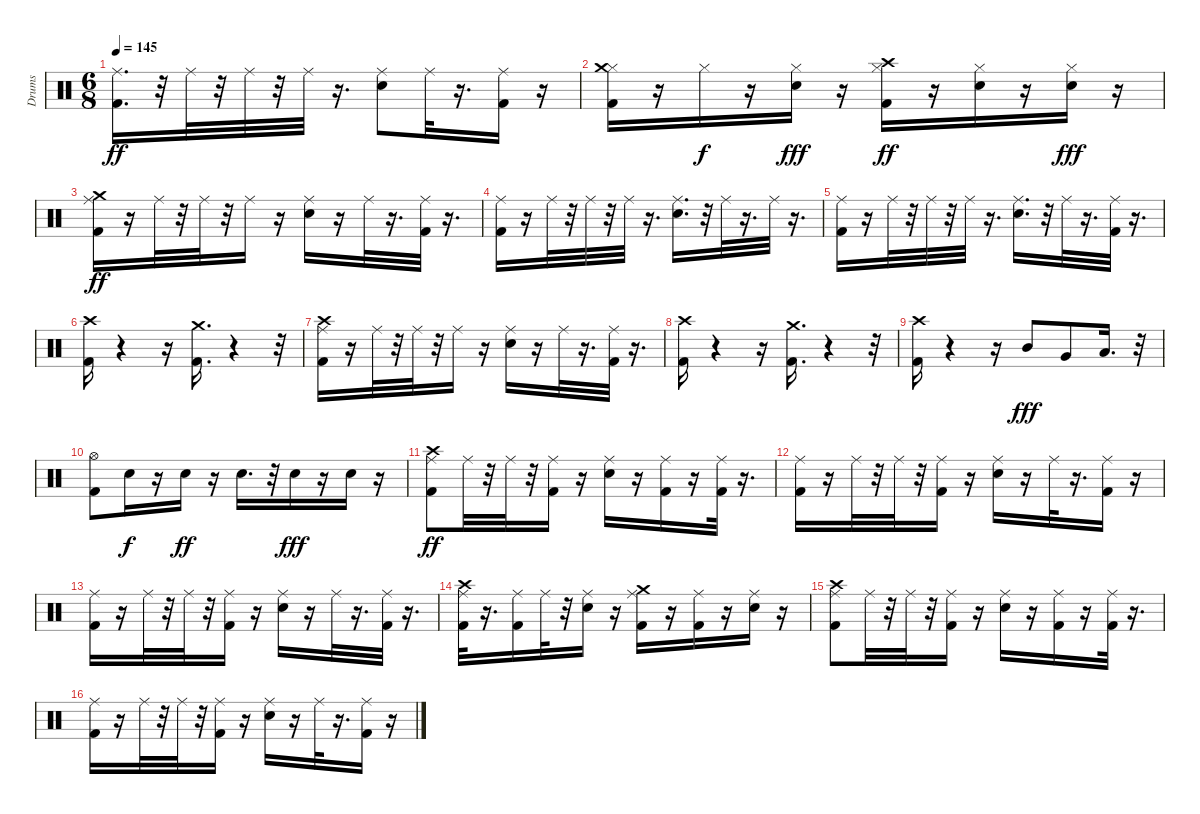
\track ("Drums" "Drums") {instrument percussion}
\staff {score}
\articulation defaults
\ts (6 8)
\tempo 145
\clef neutral
\ks c
("Kick (hit) 2" "Ride (middle)").16{d dy ff} r.32 "Ride (middle)".32 r.32 "Ride (middle)".32 r.32 "Ride (middle)".32 r.16{d} ("Snare (hit) 2" "Ride (middle)").8 "Ride (middle)".32 r.16{d} ("Kick (hit) 2" "Ride (middle)").16 r.16 |
("Kick (hit) 2" "Hi-Hat (closed)" "Crash medium (hit)").16 r.16 "Hi-Hat (closed)".16{dy f} r.16 ("Snare (hit) 2" "Hi-Hat (closed)").16{dy fff} r.16 ("Kick (hit) 2" "Hi-Hat (closed)" "Crash high (hit)").16{dy ff} r.16 ("Snare (hit) 2" "Hi-Hat (closed)").16 r.16 ("Snare (hit) 2" "Hi-Hat (closed)").16{dy fff} r.16 |
("Kick (hit) 2" "Ride (middle)" "Crash medium (hit)").16{dy ff} r.16 "Ride (middle)".32 r.32 "Ride (middle)".32 r.32 "Ride (middle)".16 r.16 ("Snare (hit) 2" "Ride (middle)").16 r.16 "Ride (middle)".32 r.16{d} ("Kick (hit) 2" "Ride (middle)").32 r.16{d} |
("Kick (hit) 2" "Ride (middle)").16 r.16 "Ride (middle)".32 r.32 "Ride (middle)".32 r.32 "Ride (middle)".32 r.16{d} ("Snare (hit) 2" "Ride (middle)").16{d} r.32 "Ride (middle)".32 r.16{d} "Ride (middle)".32 r.16{d} |
("Kick (hit) 2" "Ride (middle)").16 r.16 "Ride (middle)".32 r.32 "Ride (middle)".32 r.32 "Ride (middle)".32 r.16{d} ("Snare (hit) 2" "Ride (middle)").16{d} r.32 "Ride (middle)".32 r.16{d} ("Kick (hit) 2" "Ride (middle)").32 r.16{d} |
("Kick (hit) 2" "Crash high (hit)").16 r.4 r.16 ("Kick (hit) 2" "Crash medium (hit)").16{d} r.4 r.32 |
("Kick (hit) 2" "Ride (middle)" "Crash high (hit)").16 r.16 "Ride (middle)".32 r.32 "Ride (middle)".32 r.32 "Ride (middle)".16 r.16 ("Snare (hit) 2" "Ride (middle)").16 r.16 "Ride (middle)".32 r.16{d} ("Kick (hit) 2" "Ride (middle)").32 r.16{d} |
("Kick (hit) 2" "Crash high (hit)").16 r.4 r.16 ("Kick (hit) 2" "Crash medium (hit)").16{d} r.4 r.32 |
("Kick (hit) 2" "Crash high (hit)").16 r.4 r.16 "Mid Tom (hit)".8{dy fff} "Very Low Tom (hit)".8 "Low Floor Tom (hit)".16{d} r.32 |
("Kick (hit) 2" "Hi-Hat (open)").8 "Snare (hit) 2".16{dy f} r.16 "Snare (hit) 2".16{dy ff} r.16 "Snare (hit) 2".16{d} r.32 "Snare (hit) 2".16{dy fff} r.16 "Snare (hit) 2".16 r.16 |
("Kick (hit) 2" "Ride (middle)" "Crash high (hit)").8{dy ff} "Ride (middle)".32 r.32 "Ride (middle)".32 r.32 ("Kick (hit) 2" "Ride (middle)").16 r.16 ("Snare (hit) 2" "Ride (middle)").16 r.16 ("Kick (hit) 2" "Ride (middle)").16 r.16 ("Kick (hit) 2" "Ride (middle)").32 r.16{d} |
("Kick (hit) 2" "Ride (middle)").16 r.16 "Ride (middle)".32 r.32 "Ride (middle)".32 r.32 ("Kick (hit) 2" "Ride (middle)").16 r.16 ("Snare (hit) 2" "Ride (middle)").16 r.16 "Ride (middle)".32 r.16{d} ("Kick (hit) 2" "Ride (middle)").16 r.16 |
("Kick (hit) 2" "Ride (middle)").16 r.16 "Ride (middle)".32 r.32 "Ride (middle)".32 r.32 ("Kick (hit) 2" "Ride (middle)").16 r.16 ("Snare (hit) 2" "Ride (middle)").16 r.16 "Ride (middle)".32 r.16{d} ("Kick (hit) 2" "Ride (middle)").32 r.16{d} |
("Kick (hit) 2" "Ride (middle)" "Crash high (hit)").32 r.16{d} ("Kick (hit) 2" "Ride (middle)").16 "Ride (middle)".32 r.32 ("Snare (hit) 2" "Ride (middle)").16 r.16 ("Kick (hit) 2" "Ride (middle)" "Crash medium (hit)").16 r.16 ("Kick (hit) 2" "Ride (middle)").16 r.16 ("Snare (hit) 2" "Ride (middle)").16 r.16 |
("Kick (hit) 2" "Ride (middle)" "Crash high (hit)").8 "Ride (middle)".32 r.32 "Ride (middle)".32 r.32 ("Kick (hit) 2" "Ride (middle)").16 r.16 ("Snare (hit) 2" "Ride (middle)").16 r.16 ("Kick (hit) 2" "Ride (middle)").16 r.16 ("Kick (hit) 2" "Ride (middle)").32 r.16{d} |
("Kick (hit) 2" "Ride (middle)").16 r.16 "Ride (middle)".32 r.32 "Ride (middle)".32 r.32 ("Kick (hit) 2" "Ride (middle)").16 r.16 ("Snare (hit) 2" "Ride (middle)").16 r.16 "Ride (middle)".32 r.16{d} ("Kick (hit) 2" "Ride (middle)").16 r.16
